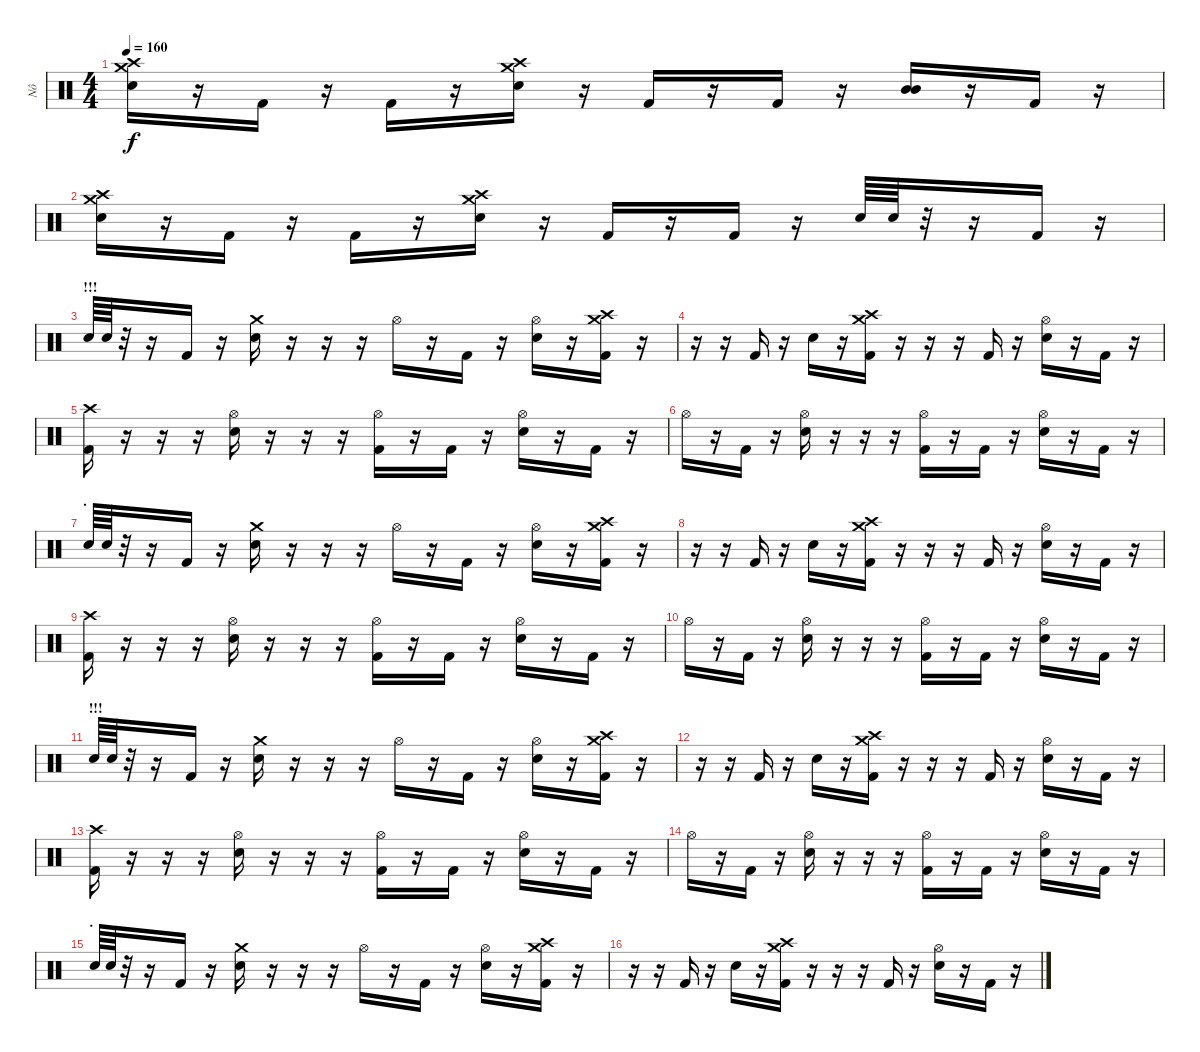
\track ("Nô" "Nô") {instrument percussion}
\staff {score}
\articulation defaults
\ts (4 4)
\tempo 160
\clef neutral
\ks c
("Crash high (hit)" "Crash medium (hit)" "Electric Snare (hit)").16{dy f} r.16 "Kick (hit) 2".16 r.16 "Kick (hit) 2".16 r.16 ("Crash high (hit)" "Crash medium (hit)" "Electric Snare (hit)").16 r.16 "Kick (hit) 2".16 r.16 "Kick (hit) 2".16 r.16 ("Mid Tom (hit)" "Mid Tom (hit)").16 r.16 "Kick (hit) 2".16 r.16 |
("Crash high (hit)" "Crash medium (hit)" "Electric Snare (hit)").16 r.16 "Kick (hit) 2".16 r.16 "Kick (hit) 2".16 r.16 ("Crash high (hit)" "Crash medium (hit)" "Electric Snare (hit)").16 r.16 "Kick (hit) 2".16 r.16 "Kick (hit) 2".16 r.16 "Electric Snare (hit)".64 "Electric Snare (hit)".64 r.32 r.16 "Kick (hit) 2".16 r.16 |
\section ("" "!!!")
"Electric Snare (hit)".64 "Electric Snare (hit)".64 r.32 r.16 "Kick (hit) 2".16 r.16 ("Crash medium (hit)" "Electric Snare (hit)").16 r.16 r.16 r.16 "Hi-Hat (open)".16 r.16 "Kick (hit) 2".16 r.16 ("Hi-Hat (open)" "Electric Snare (hit)").16 r.16 ("Crash high (hit)" "Crash medium (hit)" "Kick (hit) 2").16 r.16 |
r.16 r.16 "Kick (hit) 2".16 r.16 "Electric Snare (hit)".16 r.16 ("Crash high (hit)" "Crash medium (hit)" "Kick (hit) 2").16 r.16 r.16 r.16 "Kick (hit) 2".16 r.16 ("Hi-Hat (open)" "Electric Snare (hit)").16 r.16 "Kick (hit) 2".16 r.16 |
("Crash high (hit)" "Kick (hit) 2").16 r.16 r.16 r.16 ("Hi-Hat (open)" "Electric Snare (hit)").16 r.16 r.16 r.16 ("Hi-Hat (open)" "Kick (hit) 2").16 r.16 "Kick (hit) 2".16 r.16 ("Hi-Hat (open)" "Electric Snare (hit)").16 r.16 "Kick (hit) 2".16 r.16 |
"Hi-Hat (open)".16 r.16 "Kick (hit) 2".16 r.16 ("Hi-Hat (open)" "Electric Snare (hit)").16 r.16 r.16 r.16 ("Hi-Hat (open)" "Kick (hit) 2").16 r.16 "Kick (hit) 2".16 r.16 ("Hi-Hat (open)" "Electric Snare (hit)").16 r.16 "Kick (hit) 2".16 r.16 |
\section ("" ".")
"Electric Snare (hit)".64 "Electric Snare (hit)".64 r.32 r.16 "Kick (hit) 2".16 r.16 ("Crash medium (hit)" "Electric Snare (hit)").16 r.16 r.16 r.16 "Hi-Hat (open)".16 r.16 "Kick (hit) 2".16 r.16 ("Hi-Hat (open)" "Electric Snare (hit)").16 r.16 ("Crash high (hit)" "Crash medium (hit)" "Kick (hit) 2").16 r.16 |
r.16 r.16 "Kick (hit) 2".16 r.16 "Electric Snare (hit)".16 r.16 ("Crash high (hit)" "Crash medium (hit)" "Kick (hit) 2").16 r.16 r.16 r.16 "Kick (hit) 2".16 r.16 ("Hi-Hat (open)" "Electric Snare (hit)").16 r.16 "Kick (hit) 2".16 r.16 |
("Crash high (hit)" "Kick (hit) 2").16 r.16 r.16 r.16 ("Hi-Hat (open)" "Electric Snare (hit)").16 r.16 r.16 r.16 ("Hi-Hat (open)" "Kick (hit) 2").16 r.16 "Kick (hit) 2".16 r.16 ("Hi-Hat (open)" "Electric Snare (hit)").16 r.16 "Kick (hit) 2".16 r.16 |
"Hi-Hat (open)".16 r.16 "Kick (hit) 2".16 r.16 ("Hi-Hat (open)" "Electric Snare (hit)").16 r.16 r.16 r.16 ("Hi-Hat (open)" "Kick (hit) 2").16 r.16 "Kick (hit) 2".16 r.16 ("Hi-Hat (open)" "Electric Snare (hit)").16 r.16 "Kick (hit) 2".16 r.16 |
\section ("" "!!!")
"Electric Snare (hit)".64 "Electric Snare (hit)".64 r.32 r.16 "Kick (hit) 2".16 r.16 ("Crash medium (hit)" "Electric Snare (hit)").16 r.16 r.16 r.16 "Hi-Hat (open)".16 r.16 "Kick (hit) 2".16 r.16 ("Hi-Hat (open)" "Electric Snare (hit)").16 r.16 ("Crash high (hit)" "Crash medium (hit)" "Kick (hit) 2").16 r.16 |
r.16 r.16 "Kick (hit) 2".16 r.16 "Electric Snare (hit)".16 r.16 ("Crash high (hit)" "Crash medium (hit)" "Kick (hit) 2").16 r.16 r.16 r.16 "Kick (hit) 2".16 r.16 ("Hi-Hat (open)" "Electric Snare (hit)").16 r.16 "Kick (hit) 2".16 r.16 |
("Crash high (hit)" "Kick (hit) 2").16 r.16 r.16 r.16 ("Hi-Hat (open)" "Electric Snare (hit)").16 r.16 r.16 r.16 ("Hi-Hat (open)" "Kick (hit) 2").16 r.16 "Kick (hit) 2".16 r.16 ("Hi-Hat (open)" "Electric Snare (hit)").16 r.16 "Kick (hit) 2".16 r.16 |
"Hi-Hat (open)".16 r.16 "Kick (hit) 2".16 r.16 ("Hi-Hat (open)" "Electric Snare (hit)").16 r.16 r.16 r.16 ("Hi-Hat (open)" "Kick (hit) 2").16 r.16 "Kick (hit) 2".16 r.16 ("Hi-Hat (open)" "Electric Snare (hit)").16 r.16 "Kick (hit) 2".16 r.16 |
\section ("" ".")
"Electric Snare (hit)".64 "Electric Snare (hit)".64 r.32 r.16 "Kick (hit) 2".16 r.16 ("Crash medium (hit)" "Electric Snare (hit)").16 r.16 r.16 r.16 "Hi-Hat (open)".16 r.16 "Kick (hit) 2".16 r.16 ("Hi-Hat (open)" "Electric Snare (hit)").16 r.16 ("Crash high (hit)" "Crash medium (hit)" "Kick (hit) 2").16 r.16 |
r.16 r.16 "Kick (hit) 2".16 r.16 "Electric Snare (hit)".16 r.16 ("Crash high (hit)" "Crash medium (hit)" "Kick (hit) 2").16 r.16 r.16 r.16 "Kick (hit) 2".16 r.16 ("Hi-Hat (open)" "Electric Snare (hit)").16 r.16 "Kick (hit) 2".16 r.16
